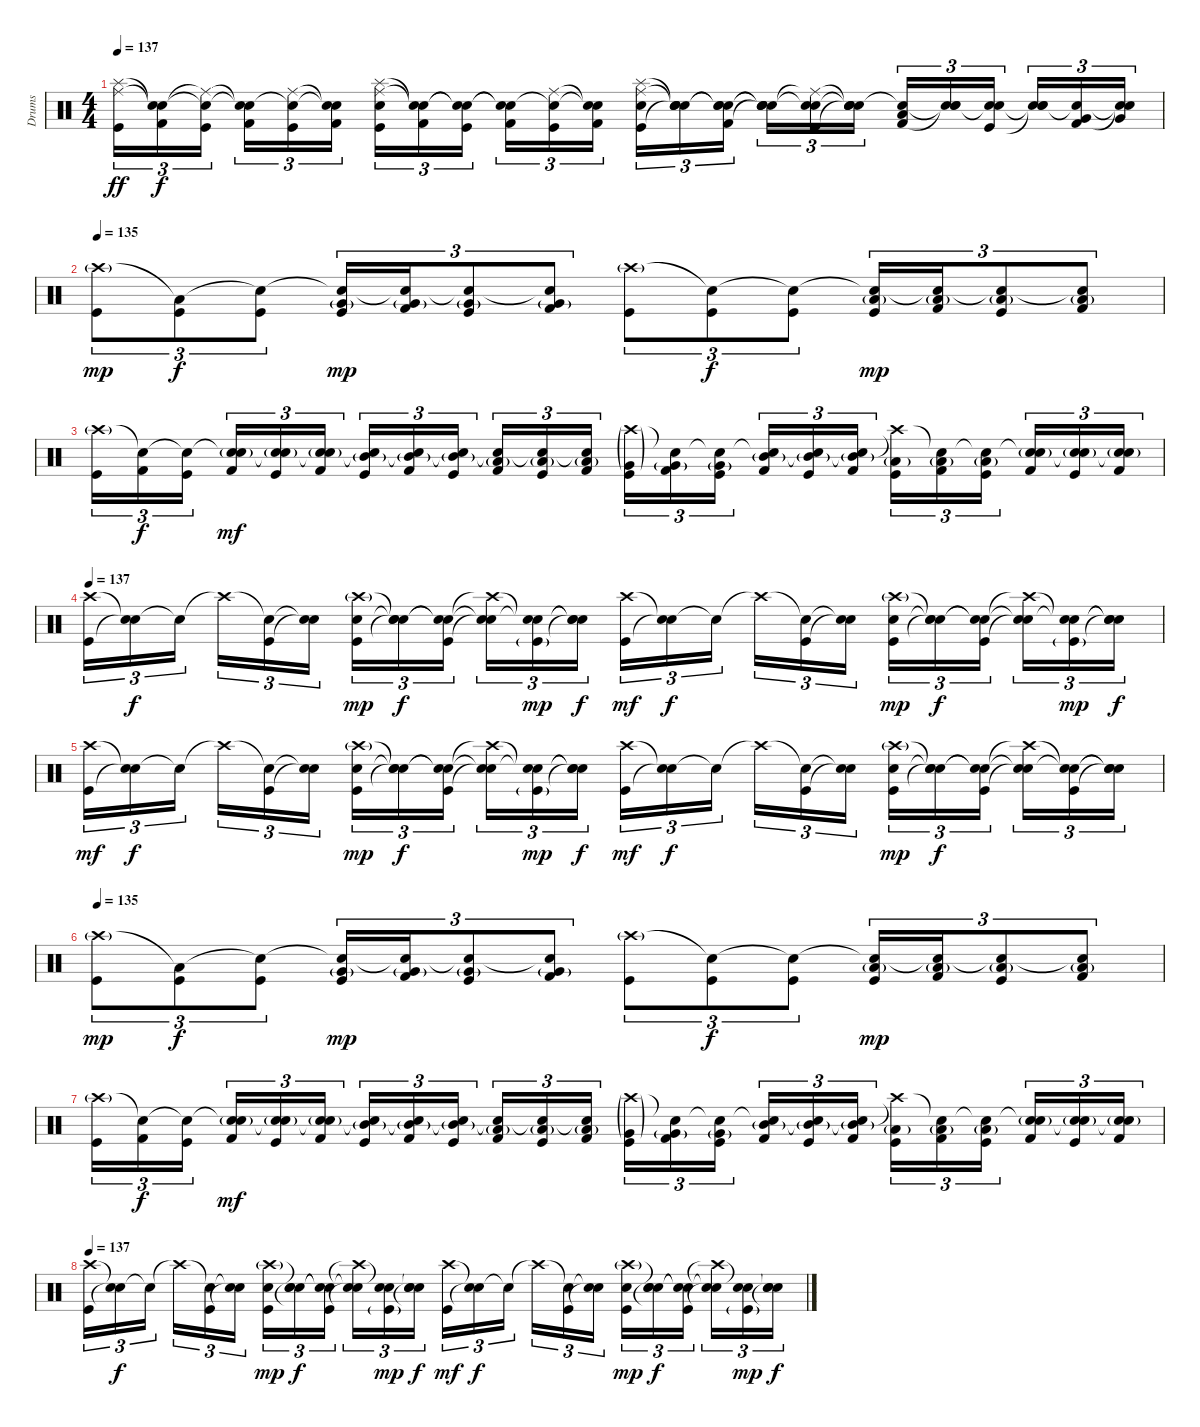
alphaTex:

\track ("Drums" "Drums") {instrument percussion}
\staff {score}
\articulation defaults
\ts (4 4)
\tempo 137
\clef neutral
\ks c
("Splash (hit)" "Ride (middle)" "Kick (hit)").16{tu (3 2) dy ff} ("Snare (hit)"{t} "Snare (hit)"{t} "Kick (hit) 2").16{tu (3 2) dy f} ("Snare (hit)"{t} "Ride (middle)"{t} "Kick (hit)").16{tu (3 2)} ("Snare (hit)"{t} "Snare (hit)"{t} "Kick (hit) 2").16{tu (3 2)} ("Snare (hit)"{t} "Ride (middle)" "Kick (hit)").16{tu (3 2)} ("Snare (hit)"{t} "Snare (hit)"{t} "Kick (hit) 2").16{tu (3 2)} ("Splash (hit)" "Ride (middle)" "Snare (hit) 2" "Kick (hit)").16{tu (3 2)} ("Snare (hit)"{t} "Snare (hit)"{t} "Kick (hit) 2").16{tu (3 2)} ("Snare (hit)"{t} "Snare (hit)"{t} "Kick (hit)").16{tu (3 2)} ("Snare (hit)"{t} "Snare (hit)"{t} "Kick (hit) 2").16{tu (3 2)} ("Snare (hit)"{t} "Ride (middle)" "Kick (hit)").16{tu (3 2)} ("Snare (hit)"{t} "Snare (hit)"{t} "Kick (hit) 2").16{tu (3 2)} ("Splash (hit)" "Ride (middle)" "Snare (hit) 2" "Kick (hit)").16{tu (3 2)} ("Snare (hit)"{t} "Snare (hit)"{t} "Snare (hit) 2" "Snare (hit)"{t}).16{tu (3 2)} ("Snare (hit)"{t} "Snare (hit)"{t} "Snare (hit) 2" "Kick (hit) 2").16{tu (3 2)} ("Snare (hit)"{t} "Snare (hit)"{t} "Snare (hit) 2" "Snare (hit)"{t}).16{tu (3 2)} ("Snare (hit)"{t} "Ride (middle)"{t} "Snare (hit) 2" "Kick (hit)").16{tu (3 2)} ("Snare (hit)"{t} "Snare (hit)"{t} "Snare (hit) 2" "Snare (hit)"{t}).16{tu (3 2)} ("Snare (hit)"{t} "Low Tom (hit)" "Kick (hit) 2").16{tu (3 2)} ("Snare (hit)"{t} "Snare (hit) 2" "Snare (hit)"{t}).16{tu (3 2)} ("Snare (hit)"{t} "Snare (hit) 2" "Kick (hit)").16{tu (3 2)} ("Snare (hit)"{t} "Snare (hit) 2" "Snare (hit)"{t}).16{tu (3 2)} ("Snare (hit)"{t} "Very Low Tom (hit)" "Kick (hit) 2").16{tu (3 2)} ("Snare (hit)"{t} "Very Low Tom (hit)" "Snare (hit)"{t}).16{tu (3 2)} |
\tempo 135
("Crash high (hit)"{g} "Kick (hit)").8{tu (3 2) dy mp volume 16} ("Low Floor Tom (hit)"{t} "Kick (hit)").8{tu (3 2) dy f} ("Snare (hit)"{t} "Kick (hit)").8{tu (3 2)} ("Snare (hit)"{t} "Very Low Tom (hit)"{g} "Kick (hit)").16{tu (3 2) dy mp} ("Snare (hit)"{t} "Very Low Tom (hit)"{g} "Kick (hit) 2").16{tu (3 2)} ("Snare (hit)"{t} "Very Low Tom (hit)"{g} "Kick (hit)").8{tu (3 2)} ("Snare (hit)"{t} "Very Low Tom (hit)"{g} "Kick (hit) 2").8{tu (3 2)} ("Crash high (hit)"{g} "Kick (hit)").8{tu (3 2)} ("Snare (hit)"{t} "Kick (hit)").8{tu (3 2) dy f} ("Snare (hit)"{t} "Kick (hit)").8{tu (3 2)} ("Snare (hit)"{t} "Low Tom (hit)"{g} "Kick (hit)").16{tu (3 2) dy mp} ("Snare (hit)"{t} "Low Tom (hit)"{g} "Kick (hit) 2").16{tu (3 2)} ("Snare (hit)"{t} "Low Tom (hit)"{g} "Kick (hit)").8{tu (3 2)} ("Snare (hit)"{t} "Low Tom (hit)"{g} "Kick (hit) 2").8{tu (3 2)} |
("Crash high (hit)"{g} "Kick (hit)").16{tu (3 2)} ("Snare (hit)"{t} "Kick (hit) 2").16{tu (3 2) dy f} ("Snare (hit)"{t} "Kick (hit)").16{tu (3 2)} ("Snare (hit)"{t} "Snare (hit) 2"{g} "Kick (hit) 2").16{tu (3 2) dy mf} ("Snare (hit)"{t} "Snare (hit) 2"{g} "Kick (hit)").16{tu (3 2)} ("Snare (hit)"{t} "Snare (hit) 2"{g} "Kick (hit) 2").16{tu (3 2)} ("Snare (hit)"{t} "Mid Tom (hit)"{g} "Kick (hit)").16{tu (3 2)} ("Snare (hit)"{t} "Mid Tom (hit)"{g} "Kick (hit) 2").16{tu (3 2)} ("Snare (hit)"{t} "Mid Tom (hit)"{g} "Kick (hit)").16{tu (3 2)} ("Snare (hit)"{t} "Low Tom (hit)"{g} "Kick (hit) 2").16{tu (3 2)} ("Snare (hit)"{t} "Low Tom (hit)"{g} "Kick (hit)").16{tu (3 2)} ("Snare (hit)"{t} "Low Tom (hit)"{g} "Kick (hit) 2").16{tu (3 2)} ("Crash high (hit)"{g} "Very Low Tom (hit)"{g} "Kick (hit)").16{tu (3 2)} ("Snare (hit)"{t} "Very Low Tom (hit)"{g} "Kick (hit) 2").16{tu (3 2)} ("Snare (hit)"{t} "Very Low Tom (hit)"{g} "Kick (hit)").16{tu (3 2)} ("Snare (hit)"{t} "Mid Tom (hit)"{g} "Kick (hit) 2").16{tu (3 2)} ("Snare (hit)"{t} "Mid Tom (hit)"{g} "Kick (hit)").16{tu (3 2)} ("Snare (hit)"{t} "Mid Tom (hit)"{g} "Kick (hit) 2").16{tu (3 2)} ("Crash high (hit)"{t} "Low Tom (hit)"{g} "Kick (hit)").16{tu (3 2)} ("Snare (hit)"{t} "Low Tom (hit)"{g} "Kick (hit) 2").16{tu (3 2)} ("Snare (hit)"{t} "Low Tom (hit)"{g} "Kick (hit)").16{tu (3 2)} ("Snare (hit)"{t} "Snare (hit) 2"{g} "Kick (hit) 2").16{tu (3 2)} ("Snare (hit)"{t} "Snare (hit) 2"{g} "Kick (hit)").16{tu (3 2)} ("Snare (hit)"{t} "Snare (hit) 2"{g} "Kick (hit) 2").16{tu (3 2)} |
\tempo 137
("Crash high (hit)" "Kick (hit)").16{tu (3 2)} ("Snare (hit)"{t} "Snare (hit)"{t}).16{tu (3 2) dy f} "Snare (hit)"{t}.16{tu (3 2)} "Crash high (hit)"{t}.16{tu (3 2)} ("Snare (hit)"{t} "Kick (hit)").16{tu (3 2)} ("Snare (hit)"{t} "Snare (hit)"{t}).16{tu (3 2)} ("Crash high (hit)"{g} "Snare (hit) 2" "Kick (hit)").16{tu (3 2) dy mp} ("Snare (hit)"{t} "Snare (hit)"{t} "Snare (hit)"{t}).16{tu (3 2) dy f} ("Snare (hit)"{t} "Snare (hit)"{t} "Kick (hit)").16{tu (3 2)} ("Crash high (hit)"{t} "Snare (hit)"{t} "Snare (hit)"{t}).16{tu (3 2)} ("Snare (hit)"{t} "Snare (hit)"{t} "Kick (hit)"{g}).16{tu (3 2) dy mp} ("Snare (hit)"{t} "Snare (hit)"{t} "Snare (hit)"{t}).16{tu (3 2) dy f} ("Crash high (hit)" "Kick (hit)").16{tu (3 2) dy mf} ("Snare (hit)"{t} "Snare (hit)"{t}).16{tu (3 2) dy f} "Snare (hit)"{t}.16{tu (3 2)} "Crash high (hit)"{t}.16{tu (3 2)} ("Snare (hit)"{t} "Kick (hit)").16{tu (3 2)} ("Snare (hit)"{t} "Snare (hit)"{t}).16{tu (3 2)} ("Crash high (hit)"{g} "Snare (hit) 2" "Kick (hit)").16{tu (3 2) dy mp} ("Snare (hit)"{t} "Snare (hit)"{t} "Snare (hit)"{t}).16{tu (3 2) dy f} ("Snare (hit)"{t} "Snare (hit)"{t} "Kick (hit)").16{tu (3 2)} ("Crash high (hit)"{t} "Snare (hit)"{t} "Snare (hit)"{t}).16{tu (3 2)} ("Snare (hit)"{t} "Snare (hit)"{t} "Kick (hit)"{g}).16{tu (3 2) dy mp} ("Snare (hit)"{t} "Snare (hit)"{t} "Snare (hit)"{t}).16{tu (3 2) dy f} |
("Crash high (hit)" "Kick (hit)").16{tu (3 2) dy mf} ("Snare (hit)"{t} "Snare (hit)"{t}).16{tu (3 2) dy f} "Snare (hit)"{t}.16{tu (3 2)} "Crash high (hit)"{t}.16{tu (3 2)} ("Snare (hit)"{t} "Kick (hit)").16{tu (3 2)} ("Snare (hit)"{t} "Snare (hit)"{t}).16{tu (3 2)} ("Crash high (hit)"{g} "Snare (hit) 2" "Kick (hit)").16{tu (3 2) dy mp} ("Snare (hit)"{t} "Snare (hit)"{t} "Snare (hit)"{t}).16{tu (3 2) dy f} ("Snare (hit)"{t} "Snare (hit)"{t} "Kick (hit)").16{tu (3 2)} ("Crash high (hit)"{t} "Snare (hit)"{t} "Snare (hit)"{t}).16{tu (3 2)} ("Snare (hit)"{t} "Snare (hit)"{t} "Kick (hit)"{g}).16{tu (3 2) dy mp} ("Snare (hit)"{t} "Snare (hit)"{t} "Snare (hit)"{t}).16{tu (3 2) dy f} ("Crash high (hit)" "Kick (hit)").16{tu (3 2) dy mf} ("Snare (hit)"{t} "Snare (hit)"{t}).16{tu (3 2) dy f} "Snare (hit)"{t}.16{tu (3 2)} "Crash high (hit)"{t}.16{tu (3 2)} ("Snare (hit)"{t} "Kick (hit)").16{tu (3 2)} ("Snare (hit)"{t} "Snare (hit)"{t}).16{tu (3 2)} ("Crash high (hit)"{g} "Snare (hit) 2" "Kick (hit)").16{tu (3 2) dy mp} ("Snare (hit)"{t} "Snare (hit)"{t} "Snare (hit)"{t}).16{tu (3 2) dy f} ("Snare (hit)"{t} "Snare (hit)"{t} "Kick (hit)").16{tu (3 2)} ("Crash high (hit)"{t} "Snare (hit)"{t} "Snare (hit)"{t}).16{tu (3 2)} ("Snare (hit)"{t} "Snare (hit)"{t} "Kick (hit)").16{tu (3 2)} ("Snare (hit)"{t} "Snare (hit)"{t} "Snare (hit)"{t}).16{tu (3 2)} |
\tempo 135
("Crash high (hit)"{g} "Kick (hit)").8{tu (3 2) dy mp volume 16} ("Low Floor Tom (hit)"{t} "Kick (hit)").8{tu (3 2) dy f} ("Snare (hit)"{t} "Kick (hit)").8{tu (3 2)} ("Snare (hit)"{t} "Very Low Tom (hit)"{g} "Kick (hit)").16{tu (3 2) dy mp} ("Snare (hit)"{t} "Very Low Tom (hit)"{g} "Kick (hit) 2").16{tu (3 2)} ("Snare (hit)"{t} "Very Low Tom (hit)"{g} "Kick (hit)").8{tu (3 2)} ("Snare (hit)"{t} "Very Low Tom (hit)"{g} "Kick (hit) 2").8{tu (3 2)} ("Crash high (hit)"{g} "Kick (hit)").8{tu (3 2)} ("Snare (hit)"{t} "Kick (hit)").8{tu (3 2) dy f} ("Snare (hit)"{t} "Kick (hit)").8{tu (3 2)} ("Snare (hit)"{t} "Low Tom (hit)"{g} "Kick (hit)").16{tu (3 2) dy mp} ("Snare (hit)"{t} "Low Tom (hit)"{g} "Kick (hit) 2").16{tu (3 2)} ("Snare (hit)"{t} "Low Tom (hit)"{g} "Kick (hit)").8{tu (3 2)} ("Snare (hit)"{t} "Low Tom (hit)"{g} "Kick (hit) 2").8{tu (3 2)} |
("Crash high (hit)"{g} "Kick (hit)").16{tu (3 2)} ("Snare (hit)"{t} "Kick (hit) 2").16{tu (3 2) dy f} ("Snare (hit)"{t} "Kick (hit)").16{tu (3 2)} ("Snare (hit)"{t} "Snare (hit) 2"{g} "Kick (hit) 2").16{tu (3 2) dy mf} ("Snare (hit)"{t} "Snare (hit) 2"{g} "Kick (hit)").16{tu (3 2)} ("Snare (hit)"{t} "Snare (hit) 2"{g} "Kick (hit) 2").16{tu (3 2)} ("Snare (hit)"{t} "Mid Tom (hit)"{g} "Kick (hit)").16{tu (3 2)} ("Snare (hit)"{t} "Mid Tom (hit)"{g} "Kick (hit) 2").16{tu (3 2)} ("Snare (hit)"{t} "Mid Tom (hit)"{g} "Kick (hit)").16{tu (3 2)} ("Snare (hit)"{t} "Low Tom (hit)"{g} "Kick (hit) 2").16{tu (3 2)} ("Snare (hit)"{t} "Low Tom (hit)"{g} "Kick (hit)").16{tu (3 2)} ("Snare (hit)"{t} "Low Tom (hit)"{g} "Kick (hit) 2").16{tu (3 2)} ("Crash high (hit)"{g} "Very Low Tom (hit)"{g} "Kick (hit)").16{tu (3 2)} ("Snare (hit)"{t} "Very Low Tom (hit)"{g} "Kick (hit) 2").16{tu (3 2)} ("Snare (hit)"{t} "Very Low Tom (hit)"{g} "Kick (hit)").16{tu (3 2)} ("Snare (hit)"{t} "Mid Tom (hit)"{g} "Kick (hit) 2").16{tu (3 2)} ("Snare (hit)"{t} "Mid Tom (hit)"{g} "Kick (hit)").16{tu (3 2)} ("Snare (hit)"{t} "Mid Tom (hit)"{g} "Kick (hit) 2").16{tu (3 2)} ("Crash high (hit)"{t} "Low Tom (hit)"{g} "Kick (hit)").16{tu (3 2)} ("Snare (hit)"{t} "Low Tom (hit)"{g} "Kick (hit) 2").16{tu (3 2)} ("Snare (hit)"{t} "Low Tom (hit)"{g} "Kick (hit)").16{tu (3 2)} ("Snare (hit)"{t} "Snare (hit) 2"{g} "Kick (hit) 2").16{tu (3 2)} ("Snare (hit)"{t} "Snare (hit) 2"{g} "Kick (hit)").16{tu (3 2)} ("Snare (hit)"{t} "Snare (hit) 2"{g} "Kick (hit) 2").16{tu (3 2)} |
\tempo 137
("Crash high (hit)" "Kick (hit)").16{tu (3 2)} ("Snare (hit)"{t} "Snare (hit)"{t}).16{tu (3 2) dy f} "Snare (hit)"{t}.16{tu (3 2)} "Crash high (hit)"{t}.16{tu (3 2)} ("Snare (hit)"{t} "Kick (hit)").16{tu (3 2)} ("Snare (hit)"{t} "Snare (hit)"{t}).16{tu (3 2)} ("Crash high (hit)"{g} "Snare (hit) 2" "Kick (hit)").16{tu (3 2) dy mp} ("Snare (hit)"{t} "Snare (hit)"{t} "Snare (hit)"{t}).16{tu (3 2) dy f} ("Snare (hit)"{t} "Snare (hit)"{t} "Kick (hit)").16{tu (3 2)} ("Crash high (hit)"{t} "Snare (hit)"{t} "Snare (hit)"{t}).16{tu (3 2)} ("Snare (hit)"{t} "Snare (hit)"{t} "Kick (hit)"{g}).16{tu (3 2) dy mp} ("Snare (hit)"{t} "Snare (hit)"{t} "Snare (hit)"{t}).16{tu (3 2) dy f} ("Crash high (hit)" "Kick (hit)").16{tu (3 2) dy mf} ("Snare (hit)"{t} "Snare (hit)"{t}).16{tu (3 2) dy f} "Snare (hit)"{t}.16{tu (3 2)} "Crash high (hit)"{t}.16{tu (3 2)} ("Snare (hit)"{t} "Kick (hit)").16{tu (3 2)} ("Snare (hit)"{t} "Snare (hit)"{t}).16{tu (3 2)} ("Crash high (hit)"{g} "Snare (hit) 2" "Kick (hit)").16{tu (3 2) dy mp} ("Snare (hit)"{t} "Snare (hit)"{t} "Snare (hit)"{t}).16{tu (3 2) dy f} ("Snare (hit)"{t} "Snare (hit)"{t} "Kick (hit)").16{tu (3 2)} ("Crash high (hit)"{t} "Snare (hit)"{t} "Snare (hit)"{t}).16{tu (3 2)} ("Snare (hit)"{t} "Snare (hit)"{t} "Kick (hit)"{g}).16{tu (3 2) dy mp} ("Snare (hit)"{t} "Snare (hit)"{t} "Snare (hit)"{t}).16{tu (3 2) dy f}
